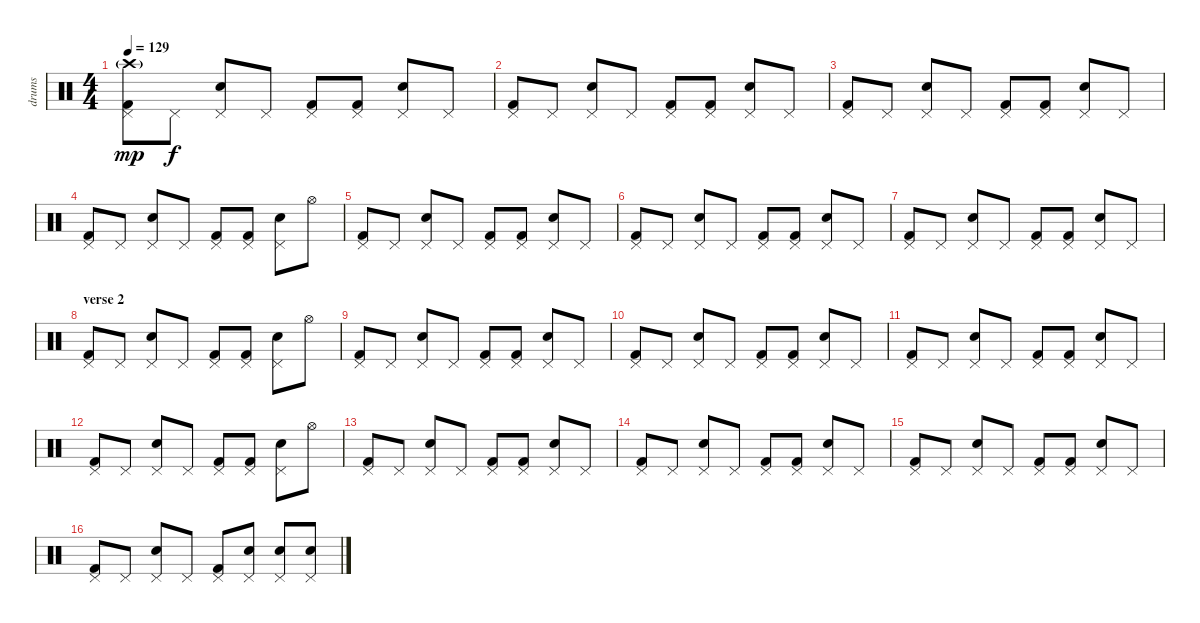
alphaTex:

\track ("drums" "drums") {instrument percussion}
\staff {score}
\articulation defaults
\ts (4 4)
\tempo 129
\clef neutral
\ks c
("Kick (hit) 2" "Pedal Hi-Hat (hit)" "Crash high (hit)"{g}).8{dy mp} "Pedal Hi-Hat (hit)".8{dy f} ("Electric Snare (hit)" "Pedal Hi-Hat (hit)").8 "Pedal Hi-Hat (hit)".8 ("Kick (hit) 2" "Pedal Hi-Hat (hit)").8 ("Kick (hit) 2" "Pedal Hi-Hat (hit)").8 ("Electric Snare (hit)" "Pedal Hi-Hat (hit)").8 "Pedal Hi-Hat (hit)".8 |
("Kick (hit) 2" "Pedal Hi-Hat (hit)").8 "Pedal Hi-Hat (hit)".8 ("Electric Snare (hit)" "Pedal Hi-Hat (hit)").8 "Pedal Hi-Hat (hit)".8 ("Kick (hit) 2" "Pedal Hi-Hat (hit)").8 ("Kick (hit) 2" "Pedal Hi-Hat (hit)").8 ("Electric Snare (hit)" "Pedal Hi-Hat (hit)").8 "Pedal Hi-Hat (hit)".8 |
("Kick (hit) 2" "Pedal Hi-Hat (hit)").8 "Pedal Hi-Hat (hit)".8 ("Electric Snare (hit)" "Pedal Hi-Hat (hit)").8 "Pedal Hi-Hat (hit)".8 ("Kick (hit) 2" "Pedal Hi-Hat (hit)").8 ("Kick (hit) 2" "Pedal Hi-Hat (hit)").8 ("Electric Snare (hit)" "Pedal Hi-Hat (hit)").8 "Pedal Hi-Hat (hit)".8 |
("Kick (hit) 2" "Pedal Hi-Hat (hit)").8 "Pedal Hi-Hat (hit)".8 ("Electric Snare (hit)" "Pedal Hi-Hat (hit)").8 "Pedal Hi-Hat (hit)".8 ("Kick (hit) 2" "Pedal Hi-Hat (hit)").8 ("Kick (hit) 2" "Pedal Hi-Hat (hit)").8 ("Electric Snare (hit)" "Pedal Hi-Hat (hit)").8 "Hi-Hat (open)".8 |
("Kick (hit) 2" "Pedal Hi-Hat (hit)").8 "Pedal Hi-Hat (hit)".8 ("Electric Snare (hit)" "Pedal Hi-Hat (hit)").8 "Pedal Hi-Hat (hit)".8 ("Kick (hit) 2" "Pedal Hi-Hat (hit)").8 ("Kick (hit) 2" "Pedal Hi-Hat (hit)").8 ("Electric Snare (hit)" "Pedal Hi-Hat (hit)").8 "Pedal Hi-Hat (hit)".8 |
("Kick (hit) 2" "Pedal Hi-Hat (hit)").8 "Pedal Hi-Hat (hit)".8 ("Electric Snare (hit)" "Pedal Hi-Hat (hit)").8 "Pedal Hi-Hat (hit)".8 ("Kick (hit) 2" "Pedal Hi-Hat (hit)").8 ("Kick (hit) 2" "Pedal Hi-Hat (hit)").8 ("Electric Snare (hit)" "Pedal Hi-Hat (hit)").8 "Pedal Hi-Hat (hit)".8 |
("Kick (hit) 2" "Pedal Hi-Hat (hit)").8 "Pedal Hi-Hat (hit)".8 ("Electric Snare (hit)" "Pedal Hi-Hat (hit)").8 "Pedal Hi-Hat (hit)".8 ("Kick (hit) 2" "Pedal Hi-Hat (hit)").8 ("Kick (hit) 2" "Pedal Hi-Hat (hit)").8 ("Electric Snare (hit)" "Pedal Hi-Hat (hit)").8 "Pedal Hi-Hat (hit)".8 |
\section ("" "verse 2")
("Kick (hit) 2" "Pedal Hi-Hat (hit)").8 "Pedal Hi-Hat (hit)".8 ("Electric Snare (hit)" "Pedal Hi-Hat (hit)").8 "Pedal Hi-Hat (hit)".8 ("Kick (hit) 2" "Pedal Hi-Hat (hit)").8 ("Kick (hit) 2" "Pedal Hi-Hat (hit)").8 ("Electric Snare (hit)" "Pedal Hi-Hat (hit)").8 "Hi-Hat (open)".8 |
("Kick (hit) 2" "Pedal Hi-Hat (hit)").8 "Pedal Hi-Hat (hit)".8 ("Electric Snare (hit)" "Pedal Hi-Hat (hit)").8 "Pedal Hi-Hat (hit)".8 ("Kick (hit) 2" "Pedal Hi-Hat (hit)").8 ("Kick (hit) 2" "Pedal Hi-Hat (hit)").8 ("Electric Snare (hit)" "Pedal Hi-Hat (hit)").8 "Pedal Hi-Hat (hit)".8 |
("Kick (hit) 2" "Pedal Hi-Hat (hit)").8 "Pedal Hi-Hat (hit)".8 ("Electric Snare (hit)" "Pedal Hi-Hat (hit)").8 "Pedal Hi-Hat (hit)".8 ("Kick (hit) 2" "Pedal Hi-Hat (hit)").8 ("Kick (hit) 2" "Pedal Hi-Hat (hit)").8 ("Electric Snare (hit)" "Pedal Hi-Hat (hit)").8 "Pedal Hi-Hat (hit)".8 |
("Kick (hit) 2" "Pedal Hi-Hat (hit)").8 "Pedal Hi-Hat (hit)".8 ("Electric Snare (hit)" "Pedal Hi-Hat (hit)").8 "Pedal Hi-Hat (hit)".8 ("Kick (hit) 2" "Pedal Hi-Hat (hit)").8 ("Kick (hit) 2" "Pedal Hi-Hat (hit)").8 ("Electric Snare (hit)" "Pedal Hi-Hat (hit)").8 "Pedal Hi-Hat (hit)".8 |
("Kick (hit) 2" "Pedal Hi-Hat (hit)").8 "Pedal Hi-Hat (hit)".8 ("Electric Snare (hit)" "Pedal Hi-Hat (hit)").8 "Pedal Hi-Hat (hit)".8 ("Kick (hit) 2" "Pedal Hi-Hat (hit)").8 ("Kick (hit) 2" "Pedal Hi-Hat (hit)").8 ("Electric Snare (hit)" "Pedal Hi-Hat (hit)").8 "Hi-Hat (open)".8 |
("Kick (hit) 2" "Pedal Hi-Hat (hit)").8 "Pedal Hi-Hat (hit)".8 ("Electric Snare (hit)" "Pedal Hi-Hat (hit)").8 "Pedal Hi-Hat (hit)".8 ("Kick (hit) 2" "Pedal Hi-Hat (hit)").8 ("Kick (hit) 2" "Pedal Hi-Hat (hit)").8 ("Electric Snare (hit)" "Pedal Hi-Hat (hit)").8 "Pedal Hi-Hat (hit)".8 |
("Kick (hit) 2" "Pedal Hi-Hat (hit)").8 "Pedal Hi-Hat (hit)".8 ("Electric Snare (hit)" "Pedal Hi-Hat (hit)").8 "Pedal Hi-Hat (hit)".8 ("Kick (hit) 2" "Pedal Hi-Hat (hit)").8 ("Kick (hit) 2" "Pedal Hi-Hat (hit)").8 ("Electric Snare (hit)" "Pedal Hi-Hat (hit)").8 "Pedal Hi-Hat (hit)".8 |
("Kick (hit) 2" "Pedal Hi-Hat (hit)").8 "Pedal Hi-Hat (hit)".8 ("Electric Snare (hit)" "Pedal Hi-Hat (hit)").8 "Pedal Hi-Hat (hit)".8 ("Kick (hit) 2" "Pedal Hi-Hat (hit)").8 ("Kick (hit) 2" "Pedal Hi-Hat (hit)").8 ("Electric Snare (hit)" "Pedal Hi-Hat (hit)").8 "Pedal Hi-Hat (hit)".8 |
("Kick (hit) 2" "Pedal Hi-Hat (hit)").8 "Pedal Hi-Hat (hit)".8 ("Electric Snare (hit)" "Pedal Hi-Hat (hit)").8 "Pedal Hi-Hat (hit)".8 ("Kick (hit) 2" "Pedal Hi-Hat (hit)").8 ("Electric Snare (hit)" "Pedal Hi-Hat (hit)").8 ("Electric Snare (hit)" "Pedal Hi-Hat (hit)").8 ("Electric Snare (hit)" "Pedal Hi-Hat (hit)").8
